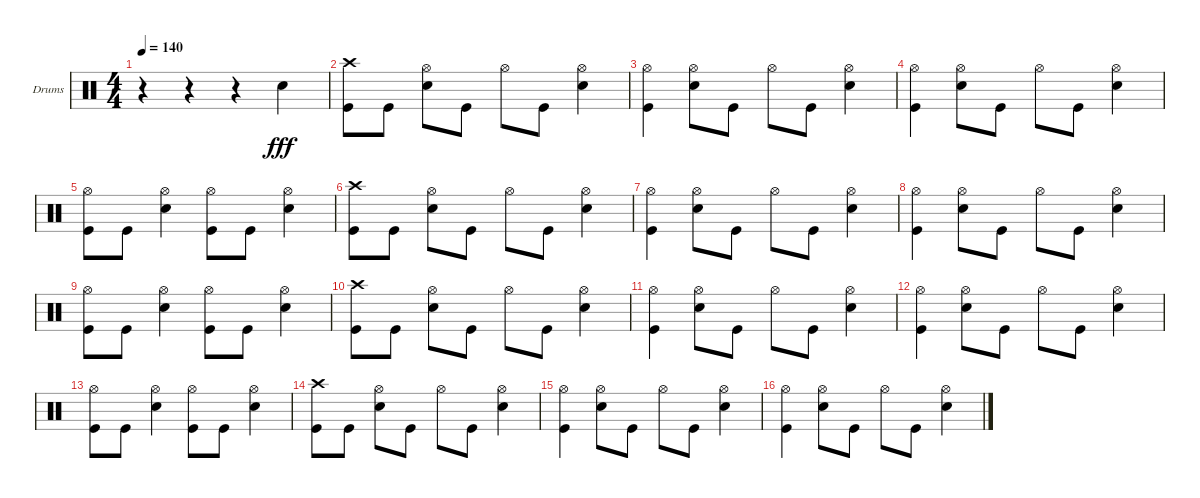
\bracketExtendMode groupsimilarinstruments
\firstSystemTrackNameOrientation horizontal
\otherSystemsTrackNameOrientation horizontal
\track ("Drumkit" "Drums") {instrument percussion}
\staff {score}
\articulation defaults
\ts (4 4)
\tempo 140
\clef neutral
\ks c
r.4{dy fff} r.4 r.4 "Snare (hit) 2".4 |
("Kick (hit)" "Crash high (hit)").8 "Kick (hit)".8 ("Snare (hit) 2" "Hi-Hat (open)").8 "Kick (hit)".8 "Hi-Hat (open)".8 "Kick (hit)".8 ("Snare (hit) 2" "Hi-Hat (open)").4 |
("Kick (hit)" "Hi-Hat (open)").4 ("Hi-Hat (open)" "Snare (hit) 2").8 "Kick (hit)".8 "Hi-Hat (open)".8 "Kick (hit)".8 ("Snare (hit) 2" "Hi-Hat (open)").4 |
("Kick (hit)" "Hi-Hat (open)").4 ("Hi-Hat (open)" "Snare (hit) 2").8 "Kick (hit)".8 "Hi-Hat (open)".8 "Kick (hit)".8 ("Snare (hit) 2" "Hi-Hat (open)").4 |
("Kick (hit)" "Hi-Hat (open)").8 "Kick (hit)".8 ("Snare (hit) 2" "Hi-Hat (open)").4 ("Kick (hit)" "Hi-Hat (open)").8 "Kick (hit)".8 ("Snare (hit) 2" "Hi-Hat (open)").4 |
("Kick (hit)" "Crash high (hit)").8 "Kick (hit)".8 ("Snare (hit) 2" "Hi-Hat (open)").8 "Kick (hit)".8 "Hi-Hat (open)".8 "Kick (hit)".8 ("Snare (hit) 2" "Hi-Hat (open)").4 |
("Kick (hit)" "Hi-Hat (open)").4 ("Hi-Hat (open)" "Snare (hit) 2").8 "Kick (hit)".8 "Hi-Hat (open)".8 "Kick (hit)".8 ("Snare (hit) 2" "Hi-Hat (open)").4 |
("Kick (hit)" "Hi-Hat (open)").4 ("Hi-Hat (open)" "Snare (hit) 2").8 "Kick (hit)".8 "Hi-Hat (open)".8 "Kick (hit)".8 ("Snare (hit) 2" "Hi-Hat (open)").4 |
("Kick (hit)" "Hi-Hat (open)").8 "Kick (hit)".8 ("Snare (hit) 2" "Hi-Hat (open)").4 ("Kick (hit)" "Hi-Hat (open)").8 "Kick (hit)".8 ("Snare (hit) 2" "Hi-Hat (open)").4 |
("Kick (hit)" "Crash high (hit)").8 "Kick (hit)".8 ("Snare (hit) 2" "Hi-Hat (open)").8 "Kick (hit)".8 "Hi-Hat (open)".8 "Kick (hit)".8 ("Snare (hit) 2" "Hi-Hat (open)").4 |
("Kick (hit)" "Hi-Hat (open)").4 ("Hi-Hat (open)" "Snare (hit) 2").8 "Kick (hit)".8 "Hi-Hat (open)".8 "Kick (hit)".8 ("Snare (hit) 2" "Hi-Hat (open)").4 |
("Kick (hit)" "Hi-Hat (open)").4 ("Hi-Hat (open)" "Snare (hit) 2").8 "Kick (hit)".8 "Hi-Hat (open)".8 "Kick (hit)".8 ("Snare (hit) 2" "Hi-Hat (open)").4 |
("Kick (hit)" "Hi-Hat (open)").8 "Kick (hit)".8 ("Snare (hit) 2" "Hi-Hat (open)").4 ("Kick (hit)" "Hi-Hat (open)").8 "Kick (hit)".8 ("Snare (hit) 2" "Hi-Hat (open)").4 |
("Kick (hit)" "Crash high (hit)").8 "Kick (hit)".8 ("Snare (hit) 2" "Hi-Hat (open)").8 "Kick (hit)".8 "Hi-Hat (open)".8 "Kick (hit)".8 ("Snare (hit) 2" "Hi-Hat (open)").4 |
("Kick (hit)" "Hi-Hat (open)").4 ("Hi-Hat (open)" "Snare (hit) 2").8 "Kick (hit)".8 "Hi-Hat (open)".8 "Kick (hit)".8 ("Snare (hit) 2" "Hi-Hat (open)").4 |
("Kick (hit)" "Hi-Hat (open)").4 ("Hi-Hat (open)" "Snare (hit) 2").8 "Kick (hit)".8 "Hi-Hat (open)".8 "Kick (hit)".8 ("Snare (hit) 2" "Hi-Hat (open)").4
